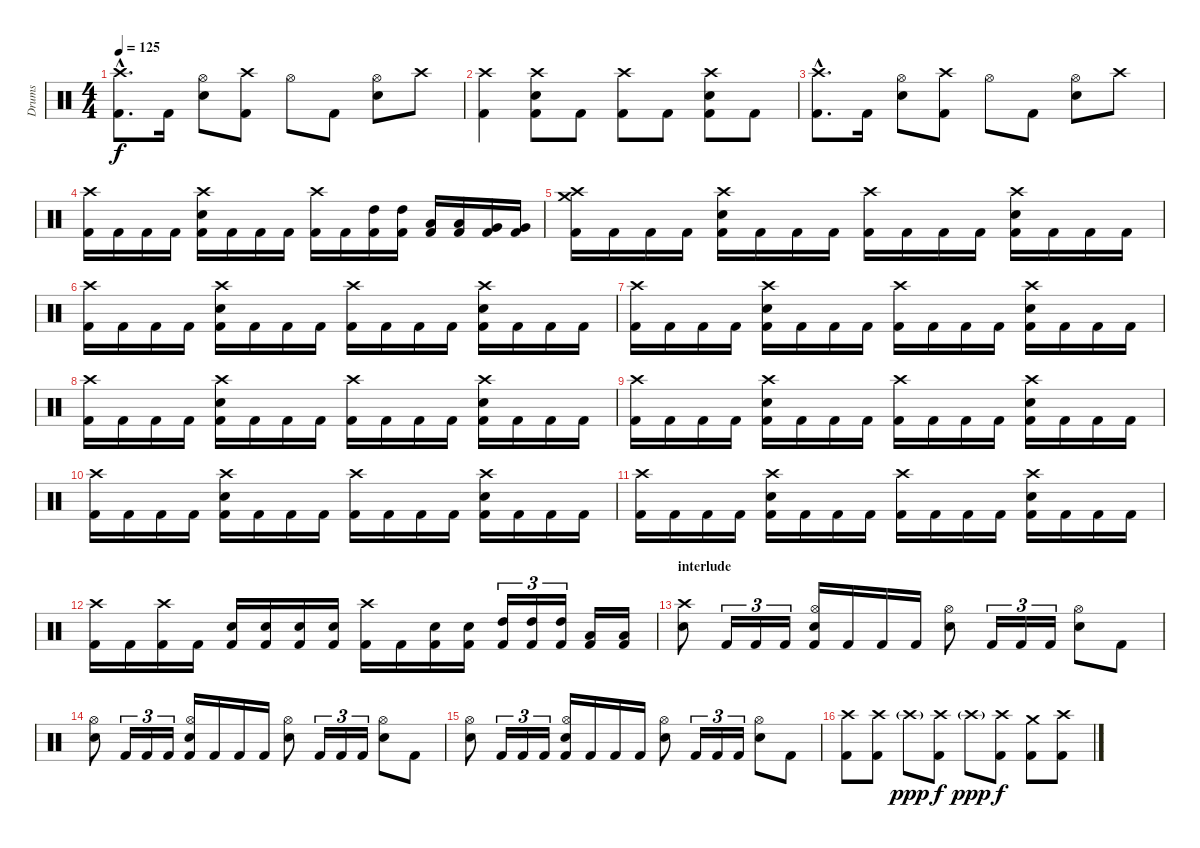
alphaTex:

\track ("Drums" "Drums") {instrument percussion}
\staff {score}
\articulation defaults
\ts (4 4)
\tempo 125
\clef neutral
\ks c
("Crash high (hit)"{hac} "Kick (hit) 2"{hac}).8{d dy f} "Kick (hit) 2".16 ("Hi-Hat (open)" "Electric Snare (hit)").8 ("Crash high (hit)" "Kick (hit) 2").8 "Hi-Hat (open)".8 "Kick (hit) 2".8 ("Hi-Hat (open)" "Electric Snare (hit)").8 "Crash high (hit)".8 |
("Crash high (hit)" "Kick (hit) 2").4 ("Crash high (hit)" "Electric Snare (hit)" "Kick (hit) 2").8 "Kick (hit) 2".8 ("Crash high (hit)" "Kick (hit) 2").8 "Kick (hit) 2".8 ("Crash high (hit)" "Electric Snare (hit)" "Kick (hit) 2").8 "Kick (hit) 2".8 |
("Crash high (hit)"{hac} "Kick (hit) 2"{hac}).8{d} "Kick (hit) 2".16 ("Hi-Hat (open)" "Electric Snare (hit)").8 ("Crash high (hit)" "Kick (hit) 2").8 "Hi-Hat (open)".8 "Kick (hit) 2".8 ("Hi-Hat (open)" "Electric Snare (hit)").8 "Crash high (hit)".8 |
("Crash high (hit)" "Kick (hit) 2").16 "Kick (hit) 2".16 "Kick (hit) 2".16 "Kick (hit) 2".16 ("Crash high (hit)" "Electric Snare (hit)" "Kick (hit) 2").16 "Kick (hit) 2".16 "Kick (hit) 2".16 "Kick (hit) 2".16 ("Crash high (hit)" "Kick (hit) 2").16 "Kick (hit) 2".16 ("High Tom (hit)" "Kick (hit) 2").16 ("High Tom (hit)" "Kick (hit) 2").16 ("Low Tom (hit)" "Kick (hit) 2").16 ("Low Tom (hit)" "Kick (hit) 2").16 ("Very Low Tom (hit)" "Kick (hit) 2").16 ("Very Low Tom (hit)" "Kick (hit) 2").16 |
("Crash high (hit)" "Crash medium (hit)" "Kick (hit) 2").16 "Kick (hit) 2".16 "Kick (hit) 2".16 "Kick (hit) 2".16 ("Crash high (hit)" "Electric Snare (hit)" "Kick (hit) 2").16 "Kick (hit) 2".16 "Kick (hit) 2".16 "Kick (hit) 2".16 ("Crash high (hit)" "Kick (hit) 2").16 "Kick (hit) 2".16 "Kick (hit) 2".16 "Kick (hit) 2".16 ("Crash high (hit)" "Electric Snare (hit)" "Kick (hit) 2").16 "Kick (hit) 2".16 "Kick (hit) 2".16 "Kick (hit) 2".16 |
("Crash high (hit)" "Kick (hit) 2").16 "Kick (hit) 2".16 "Kick (hit) 2".16 "Kick (hit) 2".16 ("Crash high (hit)" "Electric Snare (hit)" "Kick (hit) 2").16 "Kick (hit) 2".16 "Kick (hit) 2".16 "Kick (hit) 2".16 ("Crash high (hit)" "Kick (hit) 2").16 "Kick (hit) 2".16 "Kick (hit) 2".16 "Kick (hit) 2".16 ("Crash high (hit)" "Electric Snare (hit)" "Kick (hit) 2").16 "Kick (hit) 2".16 "Kick (hit) 2".16 "Kick (hit) 2".16 |
("Crash high (hit)" "Kick (hit) 2").16 "Kick (hit) 2".16 "Kick (hit) 2".16 "Kick (hit) 2".16 ("Crash high (hit)" "Electric Snare (hit)" "Kick (hit) 2").16 "Kick (hit) 2".16 "Kick (hit) 2".16 "Kick (hit) 2".16 ("Crash high (hit)" "Kick (hit) 2").16 "Kick (hit) 2".16 "Kick (hit) 2".16 "Kick (hit) 2".16 ("Crash high (hit)" "Electric Snare (hit)" "Kick (hit) 2").16 "Kick (hit) 2".16 "Kick (hit) 2".16 "Kick (hit) 2".16 |
("Crash high (hit)" "Kick (hit) 2").16 "Kick (hit) 2".16 "Kick (hit) 2".16 "Kick (hit) 2".16 ("Crash high (hit)" "Electric Snare (hit)" "Kick (hit) 2").16 "Kick (hit) 2".16 "Kick (hit) 2".16 "Kick (hit) 2".16 ("Crash high (hit)" "Kick (hit) 2").16 "Kick (hit) 2".16 "Kick (hit) 2".16 "Kick (hit) 2".16 ("Crash high (hit)" "Electric Snare (hit)" "Kick (hit) 2").16 "Kick (hit) 2".16 "Kick (hit) 2".16 "Kick (hit) 2".16 |
("Crash high (hit)" "Kick (hit) 2").16 "Kick (hit) 2".16 "Kick (hit) 2".16 "Kick (hit) 2".16 ("Crash high (hit)" "Electric Snare (hit)" "Kick (hit) 2").16 "Kick (hit) 2".16 "Kick (hit) 2".16 "Kick (hit) 2".16 ("Crash high (hit)" "Kick (hit) 2").16 "Kick (hit) 2".16 "Kick (hit) 2".16 "Kick (hit) 2".16 ("Crash high (hit)" "Electric Snare (hit)" "Kick (hit) 2").16 "Kick (hit) 2".16 "Kick (hit) 2".16 "Kick (hit) 2".16 |
("Crash high (hit)" "Kick (hit) 2").16 "Kick (hit) 2".16 "Kick (hit) 2".16 "Kick (hit) 2".16 ("Crash high (hit)" "Electric Snare (hit)" "Kick (hit) 2").16 "Kick (hit) 2".16 "Kick (hit) 2".16 "Kick (hit) 2".16 ("Crash high (hit)" "Kick (hit) 2").16 "Kick (hit) 2".16 "Kick (hit) 2".16 "Kick (hit) 2".16 ("Crash high (hit)" "Electric Snare (hit)" "Kick (hit) 2").16 "Kick (hit) 2".16 "Kick (hit) 2".16 "Kick (hit) 2".16 |
("Crash high (hit)" "Kick (hit) 2").16 "Kick (hit) 2".16 "Kick (hit) 2".16 "Kick (hit) 2".16 ("Crash high (hit)" "Electric Snare (hit)" "Kick (hit) 2").16 "Kick (hit) 2".16 "Kick (hit) 2".16 "Kick (hit) 2".16 ("Crash high (hit)" "Kick (hit) 2").16 "Kick (hit) 2".16 "Kick (hit) 2".16 "Kick (hit) 2".16 ("Crash high (hit)" "Electric Snare (hit)" "Kick (hit) 2").16 "Kick (hit) 2".16 "Kick (hit) 2".16 "Kick (hit) 2".16 |
("Crash high (hit)" "Kick (hit) 2").16 "Kick (hit) 2".16 ("Crash high (hit)" "Kick (hit) 2").16 "Kick (hit) 2".16 ("Electric Snare (hit)" "Kick (hit) 2").16 ("Electric Snare (hit)" "Kick (hit) 2").16 ("Electric Snare (hit)" "Kick (hit) 2").16 ("Electric Snare (hit)" "Kick (hit) 2").16 ("Crash high (hit)" "Kick (hit) 2").16 "Kick (hit) 2".16 ("Electric Snare (hit)" "Kick (hit) 2").16 ("Electric Snare (hit)" "Kick (hit) 2").16 ("High Tom (hit)" "Kick (hit) 2").16{tu (3 2)} ("High Tom (hit)" "Kick (hit) 2").16{tu (3 2)} ("High Tom (hit)" "Kick (hit) 2").16{tu (3 2)} ("Low Tom (hit)" "Kick (hit) 2").16 ("Low Tom (hit)" "Kick (hit) 2").16 |
\section ("" "interlude")
("Crash high (hit)" "Electric Snare (hit)").8 "Kick (hit) 2".16{tu (3 2)} "Kick (hit) 2".16{tu (3 2)} "Kick (hit) 2".16{tu (3 2)} ("Hi-Hat (open)" "Electric Snare (hit)" "Kick (hit) 2").16 "Kick (hit) 2".16 "Kick (hit) 2".16 "Kick (hit) 2".16 ("Hi-Hat (open)" "Electric Snare (hit)").8 "Kick (hit) 2".16{tu (3 2)} "Kick (hit) 2".16{tu (3 2)} "Kick (hit) 2".16{tu (3 2)} ("Hi-Hat (open)" "Electric Snare (hit)").8 "Kick (hit) 2".8 |
("Hi-Hat (open)" "Electric Snare (hit)").8 "Kick (hit) 2".16{tu (3 2)} "Kick (hit) 2".16{tu (3 2)} "Kick (hit) 2".16{tu (3 2)} ("Hi-Hat (open)" "Electric Snare (hit)" "Kick (hit) 2").16 "Kick (hit) 2".16 "Kick (hit) 2".16 "Kick (hit) 2".16 ("Hi-Hat (open)" "Electric Snare (hit)").8 "Kick (hit) 2".16{tu (3 2)} "Kick (hit) 2".16{tu (3 2)} "Kick (hit) 2".16{tu (3 2)} ("Hi-Hat (open)" "Electric Snare (hit)").8 "Kick (hit) 2".8 |
("Hi-Hat (open)" "Electric Snare (hit)").8 "Kick (hit) 2".16{tu (3 2)} "Kick (hit) 2".16{tu (3 2)} "Kick (hit) 2".16{tu (3 2)} ("Hi-Hat (open)" "Electric Snare (hit)" "Kick (hit) 2").16 "Kick (hit) 2".16 "Kick (hit) 2".16 "Kick (hit) 2".16 ("Hi-Hat (open)" "Electric Snare (hit)").8 "Kick (hit) 2".16{tu (3 2)} "Kick (hit) 2".16{tu (3 2)} "Kick (hit) 2".16{tu (3 2)} ("Hi-Hat (open)" "Electric Snare (hit)").8 "Kick (hit) 2".8 |
("Crash high (hit)" "Kick (hit) 2").8 ("Crash high (hit)"{pm} "Kick (hit) 2").8 "Crash high (hit)"{g}.8{dy ppp} ("Crash high (hit)"{pm} "Kick (hit) 2").8{dy f} "Crash high (hit)"{g}.8{dy ppp} ("Crash high (hit)" "Kick (hit) 2").8{dy f} ("Crash medium (hit)" "Kick (hit) 2").8 ("Crash high (hit)" "Kick (hit) 2").8
